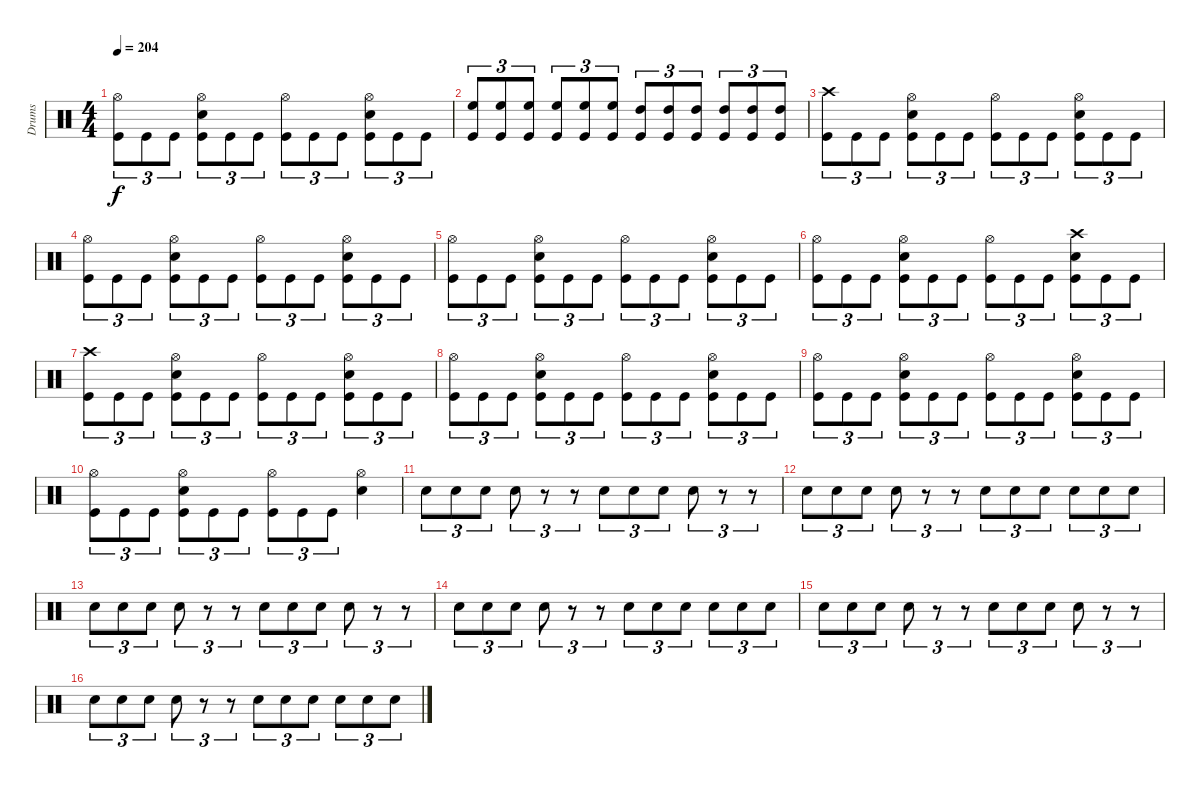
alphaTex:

\track ("Drums" "Drums") {instrument percussion}
\staff {score}
\articulation defaults
\ts (4 4)
\tempo 204
\clef neutral
\ks c
("Hi-Hat (open)" "Kick (hit)").8{tu (3 2) dy f} "Kick (hit)".8{tu (3 2)} "Kick (hit)".8{tu (3 2)} ("Hi-Hat (open)" "Snare (hit) 2" "Kick (hit)").8{tu (3 2)} "Kick (hit)".8{tu (3 2)} "Kick (hit)".8{tu (3 2)} ("Hi-Hat (open)" "Kick (hit)").8{tu (3 2)} "Kick (hit)".8{tu (3 2)} "Kick (hit)".8{tu (3 2)} ("Hi-Hat (open)" "Snare (hit) 2" "Kick (hit)").8{tu (3 2)} "Kick (hit)".8{tu (3 2)} "Kick (hit)".8{tu (3 2)} |
("High Floor Tom (hit)" "Kick (hit)").8{tu (3 2)} ("High Floor Tom (hit)" "Kick (hit)").8{tu (3 2)} ("High Floor Tom (hit)" "Kick (hit)").8{tu (3 2)} ("High Floor Tom (hit)" "Kick (hit)").8{tu (3 2)} ("High Floor Tom (hit)" "Kick (hit)").8{tu (3 2)} ("High Floor Tom (hit)" "Kick (hit)").8{tu (3 2)} ("High Tom (hit)" "Kick (hit)").8{tu (3 2)} ("High Tom (hit)" "Kick (hit)").8{tu (3 2)} ("High Tom (hit)" "Kick (hit)").8{tu (3 2)} ("High Tom (hit)" "Kick (hit)").8{tu (3 2)} ("High Tom (hit)" "Kick (hit)").8{tu (3 2)} ("High Tom (hit)" "Kick (hit)").8{tu (3 2)} |
("Crash high (hit)" "Kick (hit)").8{tu (3 2)} "Kick (hit)".8{tu (3 2)} "Kick (hit)".8{tu (3 2)} ("Hi-Hat (open)" "Snare (hit) 2" "Kick (hit)").8{tu (3 2)} "Kick (hit)".8{tu (3 2)} "Kick (hit)".8{tu (3 2)} ("Hi-Hat (open)" "Kick (hit)").8{tu (3 2)} "Kick (hit)".8{tu (3 2)} "Kick (hit)".8{tu (3 2)} ("Hi-Hat (open)" "Snare (hit) 2" "Kick (hit)").8{tu (3 2)} "Kick (hit)".8{tu (3 2)} "Kick (hit)".8{tu (3 2)} |
("Hi-Hat (open)" "Kick (hit)").8{tu (3 2)} "Kick (hit)".8{tu (3 2)} "Kick (hit)".8{tu (3 2)} ("Hi-Hat (open)" "Snare (hit) 2" "Kick (hit)").8{tu (3 2)} "Kick (hit)".8{tu (3 2)} "Kick (hit)".8{tu (3 2)} ("Hi-Hat (open)" "Kick (hit)").8{tu (3 2)} "Kick (hit)".8{tu (3 2)} "Kick (hit)".8{tu (3 2)} ("Hi-Hat (open)" "Snare (hit) 2" "Kick (hit)").8{tu (3 2)} "Kick (hit)".8{tu (3 2)} "Kick (hit)".8{tu (3 2)} |
("Hi-Hat (open)" "Kick (hit)").8{tu (3 2)} "Kick (hit)".8{tu (3 2)} "Kick (hit)".8{tu (3 2)} ("Hi-Hat (open)" "Snare (hit) 2" "Kick (hit)").8{tu (3 2)} "Kick (hit)".8{tu (3 2)} "Kick (hit)".8{tu (3 2)} ("Hi-Hat (open)" "Kick (hit)").8{tu (3 2)} "Kick (hit)".8{tu (3 2)} "Kick (hit)".8{tu (3 2)} ("Hi-Hat (open)" "Snare (hit) 2" "Kick (hit)").8{tu (3 2)} "Kick (hit)".8{tu (3 2)} "Kick (hit)".8{tu (3 2)} |
("Hi-Hat (open)" "Kick (hit)").8{tu (3 2)} "Kick (hit)".8{tu (3 2)} "Kick (hit)".8{tu (3 2)} ("Hi-Hat (open)" "Snare (hit) 2" "Kick (hit)").8{tu (3 2)} "Kick (hit)".8{tu (3 2)} "Kick (hit)".8{tu (3 2)} ("Hi-Hat (open)" "Kick (hit)").8{tu (3 2)} "Kick (hit)".8{tu (3 2)} "Kick (hit)".8{tu (3 2)} ("Crash high (hit)" "Snare (hit) 2" "Kick (hit)").8{tu (3 2)} "Kick (hit)".8{tu (3 2)} "Kick (hit)".8{tu (3 2)} |
("Crash high (hit)" "Kick (hit)").8{tu (3 2)} "Kick (hit)".8{tu (3 2)} "Kick (hit)".8{tu (3 2)} ("Hi-Hat (open)" "Snare (hit) 2" "Kick (hit)").8{tu (3 2)} "Kick (hit)".8{tu (3 2)} "Kick (hit)".8{tu (3 2)} ("Hi-Hat (open)" "Kick (hit)").8{tu (3 2)} "Kick (hit)".8{tu (3 2)} "Kick (hit)".8{tu (3 2)} ("Hi-Hat (open)" "Snare (hit) 2" "Kick (hit)").8{tu (3 2)} "Kick (hit)".8{tu (3 2)} "Kick (hit)".8{tu (3 2)} |
("Hi-Hat (open)" "Kick (hit)").8{tu (3 2)} "Kick (hit)".8{tu (3 2)} "Kick (hit)".8{tu (3 2)} ("Hi-Hat (open)" "Snare (hit) 2" "Kick (hit)").8{tu (3 2)} "Kick (hit)".8{tu (3 2)} "Kick (hit)".8{tu (3 2)} ("Hi-Hat (open)" "Kick (hit)").8{tu (3 2)} "Kick (hit)".8{tu (3 2)} "Kick (hit)".8{tu (3 2)} ("Hi-Hat (open)" "Snare (hit) 2" "Kick (hit)").8{tu (3 2)} "Kick (hit)".8{tu (3 2)} "Kick (hit)".8{tu (3 2)} |
("Hi-Hat (open)" "Kick (hit)").8{tu (3 2)} "Kick (hit)".8{tu (3 2)} "Kick (hit)".8{tu (3 2)} ("Hi-Hat (open)" "Snare (hit) 2" "Kick (hit)").8{tu (3 2)} "Kick (hit)".8{tu (3 2)} "Kick (hit)".8{tu (3 2)} ("Hi-Hat (open)" "Kick (hit)").8{tu (3 2)} "Kick (hit)".8{tu (3 2)} "Kick (hit)".8{tu (3 2)} ("Hi-Hat (open)" "Snare (hit) 2" "Kick (hit)").8{tu (3 2)} "Kick (hit)".8{tu (3 2)} "Kick (hit)".8{tu (3 2)} |
("Hi-Hat (open)" "Kick (hit)").8{tu (3 2)} "Kick (hit)".8{tu (3 2)} "Kick (hit)".8{tu (3 2)} ("Hi-Hat (open)" "Snare (hit) 2" "Kick (hit)").8{tu (3 2)} "Kick (hit)".8{tu (3 2)} "Kick (hit)".8{tu (3 2)} ("Hi-Hat (open)" "Kick (hit)").8{tu (3 2)} "Kick (hit)".8{tu (3 2)} "Kick (hit)".8{tu (3 2)} ("Hi-Hat (open)" "Snare (hit) 2").4 |
"Snare (hit) 2".8{tu (3 2)} "Snare (hit) 2".8{tu (3 2)} "Snare (hit) 2".8{tu (3 2)} "Snare (hit) 2".8{tu (3 2)} r.8{tu (3 2)} r.8{tu (3 2)} "Snare (hit) 2".8{tu (3 2)} "Snare (hit) 2".8{tu (3 2)} "Snare (hit) 2".8{tu (3 2)} "Snare (hit) 2".8{tu (3 2)} r.8{tu (3 2)} r.8{tu (3 2)} |
"Snare (hit) 2".8{tu (3 2)} "Snare (hit) 2".8{tu (3 2)} "Snare (hit) 2".8{tu (3 2)} "Snare (hit) 2".8{tu (3 2)} r.8{tu (3 2)} r.8{tu (3 2)} "Snare (hit) 2".8{tu (3 2)} "Snare (hit) 2".8{tu (3 2)} "Snare (hit) 2".8{tu (3 2)} "Snare (hit) 2".8{tu (3 2)} "Snare (hit) 2".8{tu (3 2)} "Snare (hit) 2".8{tu (3 2)} |
"Snare (hit) 2".8{tu (3 2)} "Snare (hit) 2".8{tu (3 2)} "Snare (hit) 2".8{tu (3 2)} "Snare (hit) 2".8{tu (3 2)} r.8{tu (3 2)} r.8{tu (3 2)} "Snare (hit) 2".8{tu (3 2)} "Snare (hit) 2".8{tu (3 2)} "Snare (hit) 2".8{tu (3 2)} "Snare (hit) 2".8{tu (3 2)} r.8{tu (3 2)} r.8{tu (3 2)} |
"Snare (hit) 2".8{tu (3 2)} "Snare (hit) 2".8{tu (3 2)} "Snare (hit) 2".8{tu (3 2)} "Snare (hit) 2".8{tu (3 2)} r.8{tu (3 2)} r.8{tu (3 2)} "Snare (hit) 2".8{tu (3 2)} "Snare (hit) 2".8{tu (3 2)} "Snare (hit) 2".8{tu (3 2)} "Snare (hit) 2".8{tu (3 2)} "Snare (hit) 2".8{tu (3 2)} "Snare (hit) 2".8{tu (3 2)} |
"Snare (hit) 2".8{tu (3 2)} "Snare (hit) 2".8{tu (3 2)} "Snare (hit) 2".8{tu (3 2)} "Snare (hit) 2".8{tu (3 2)} r.8{tu (3 2)} r.8{tu (3 2)} "Snare (hit) 2".8{tu (3 2)} "Snare (hit) 2".8{tu (3 2)} "Snare (hit) 2".8{tu (3 2)} "Snare (hit) 2".8{tu (3 2)} r.8{tu (3 2)} r.8{tu (3 2)} |
"Snare (hit) 2".8{tu (3 2)} "Snare (hit) 2".8{tu (3 2)} "Snare (hit) 2".8{tu (3 2)} "Snare (hit) 2".8{tu (3 2)} r.8{tu (3 2)} r.8{tu (3 2)} "Snare (hit) 2".8{tu (3 2)} "Snare (hit) 2".8{tu (3 2)} "Snare (hit) 2".8{tu (3 2)} "Snare (hit) 2".8{tu (3 2)} "Snare (hit) 2".8{tu (3 2)} "Snare (hit) 2".8{tu (3 2)}
